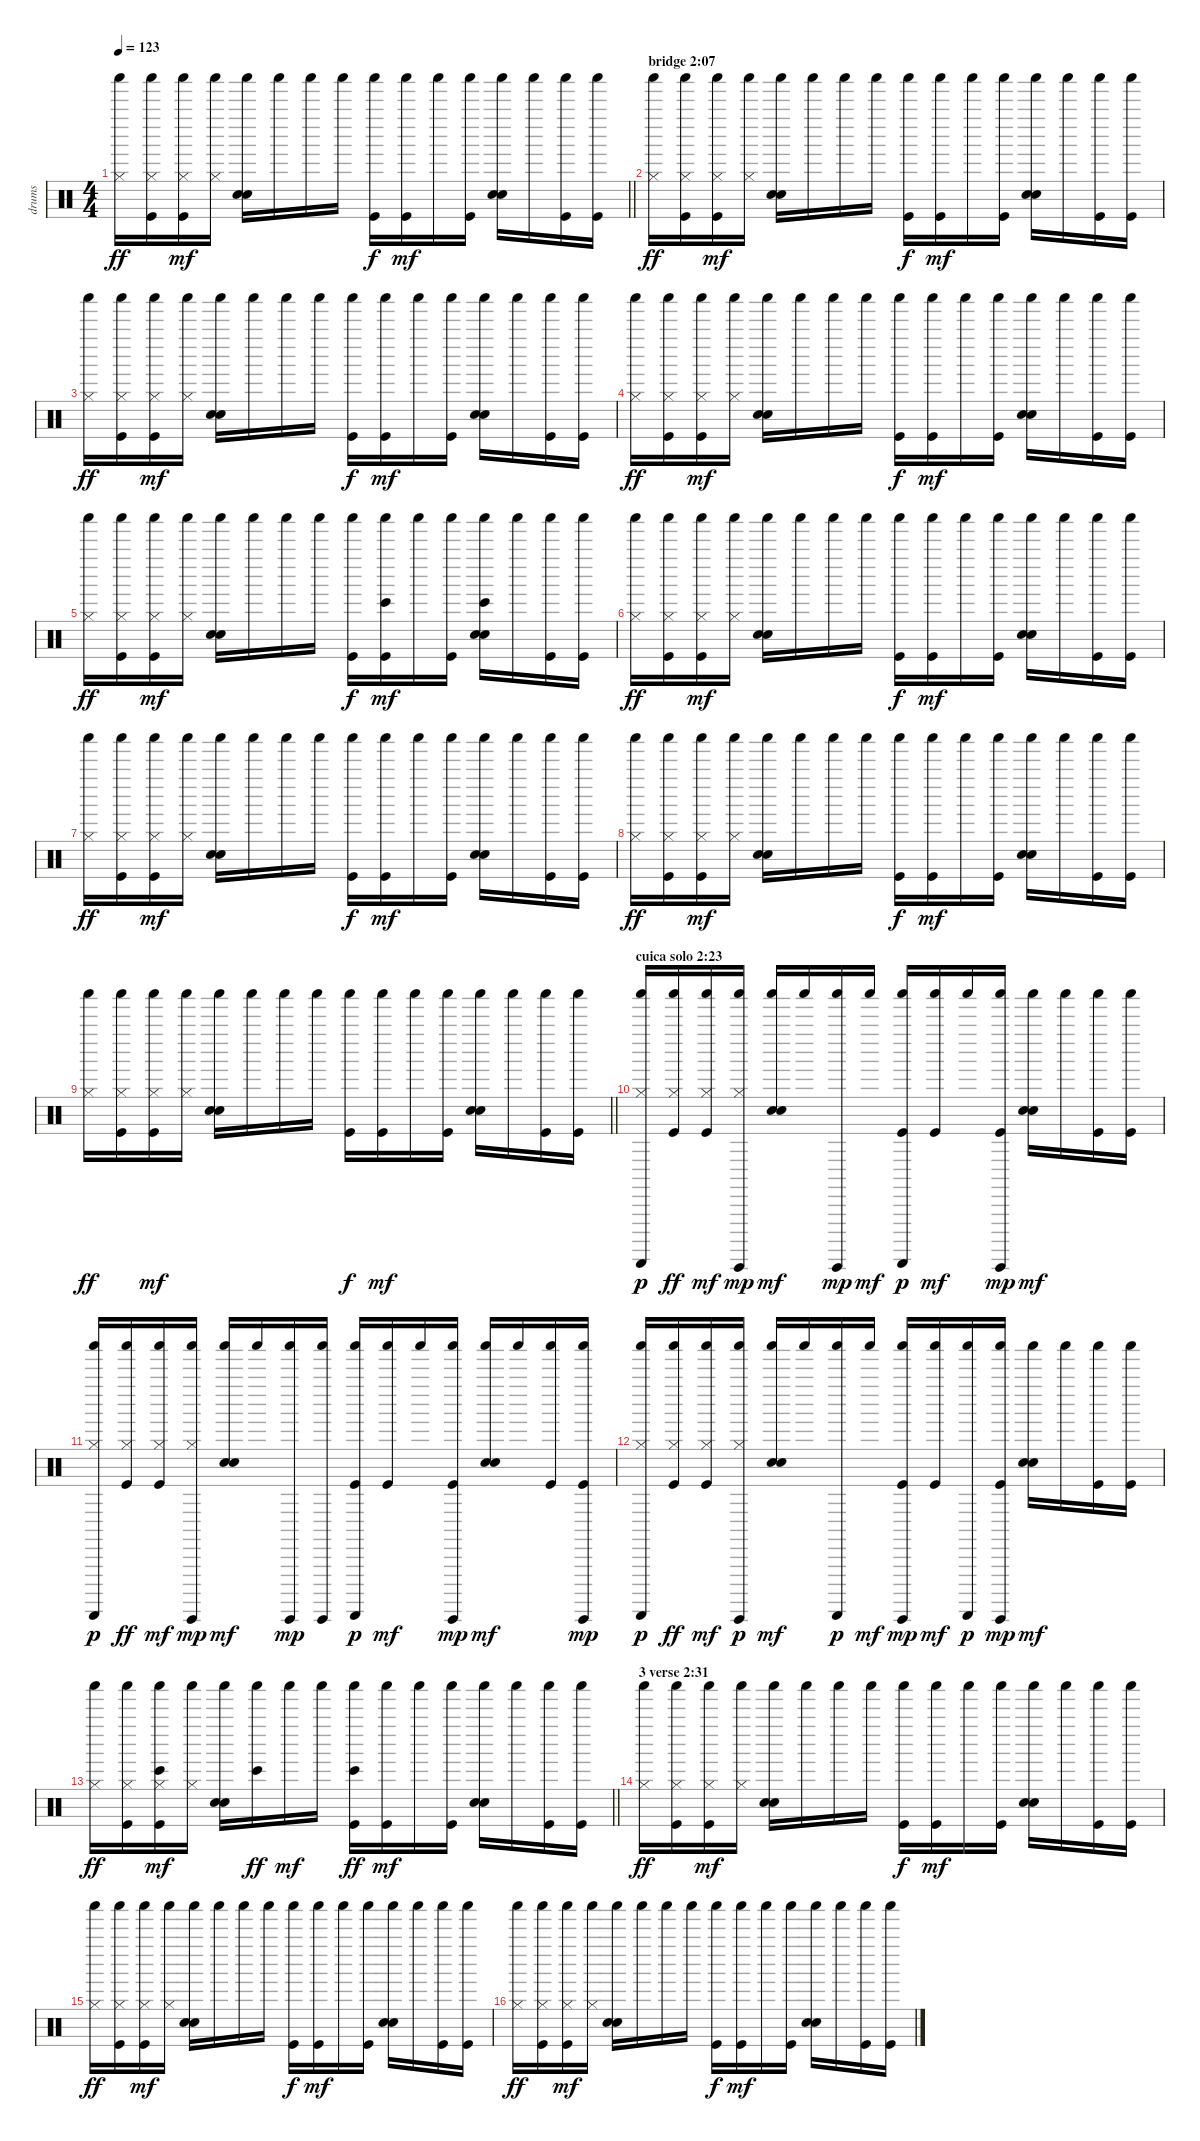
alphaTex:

\track ("drums" "drums") {instrument percussion}
\staff {score}
\articulation defaults
\ts (4 4)
\tempo 123
\clef neutral
\barLineRight lightlight
\ks c
("Shaker (hit)" "Hi-Hat (closed)").16{dy ff} ("Shaker (hit)" "Hi-Hat (closed)" "Kick (hit)").16 ("Shaker (hit)" "Hi-Hat (closed)" "Kick (hit)").16{dy mf} ("Shaker (hit)" "Hi-Hat (closed)").16 ("Shaker (hit)" "Electric Snare (hit)" "Hand Clap (hit)").16 "Shaker (hit)".16 "Shaker (hit)".16 "Shaker (hit)".16 ("Shaker (hit)" "Kick (hit)").16{dy f} ("Shaker (hit)" "Kick (hit)").16{dy mf} "Shaker (hit)".16 ("Shaker (hit)" "Kick (hit)").16 ("Shaker (hit)" "Electric Snare (hit)" "Hand Clap (hit)").16 "Shaker (hit)".16 ("Shaker (hit)" "Kick (hit)").16 ("Shaker (hit)" "Kick (hit)").16 |
\section ("" "bridge 2:07")
("Shaker (hit)" "Hi-Hat (closed)").16{dy ff} ("Shaker (hit)" "Hi-Hat (closed)" "Kick (hit)").16 ("Shaker (hit)" "Hi-Hat (closed)" "Kick (hit)").16{dy mf} ("Shaker (hit)" "Hi-Hat (closed)").16 ("Shaker (hit)" "Electric Snare (hit)" "Hand Clap (hit)").16 "Shaker (hit)".16 "Shaker (hit)".16 "Shaker (hit)".16 ("Shaker (hit)" "Kick (hit)").16{dy f} ("Shaker (hit)" "Kick (hit)").16{dy mf} "Shaker (hit)".16 ("Shaker (hit)" "Kick (hit)").16 ("Shaker (hit)" "Electric Snare (hit)" "Hand Clap (hit)").16 "Shaker (hit)".16 ("Shaker (hit)" "Kick (hit)").16 ("Shaker (hit)" "Kick (hit)").16 |
("Shaker (hit)" "Hi-Hat (closed)").16{dy ff} ("Shaker (hit)" "Hi-Hat (closed)" "Kick (hit)").16 ("Shaker (hit)" "Hi-Hat (closed)" "Kick (hit)").16{dy mf} ("Shaker (hit)" "Hi-Hat (closed)").16 ("Shaker (hit)" "Electric Snare (hit)" "Hand Clap (hit)").16 "Shaker (hit)".16 "Shaker (hit)".16 "Shaker (hit)".16 ("Shaker (hit)" "Kick (hit)").16{dy f} ("Shaker (hit)" "Kick (hit)").16{dy mf} "Shaker (hit)".16 ("Shaker (hit)" "Kick (hit)").16 ("Shaker (hit)" "Electric Snare (hit)" "Hand Clap (hit)").16 "Shaker (hit)".16 ("Shaker (hit)" "Kick (hit)").16 ("Shaker (hit)" "Kick (hit)").16 |
("Shaker (hit)" "Hi-Hat (closed)").16{dy ff} ("Shaker (hit)" "Hi-Hat (closed)" "Kick (hit)").16 ("Shaker (hit)" "Hi-Hat (closed)" "Kick (hit)").16{dy mf} ("Shaker (hit)" "Hi-Hat (closed)").16 ("Shaker (hit)" "Electric Snare (hit)" "Hand Clap (hit)").16 "Shaker (hit)".16 "Shaker (hit)".16 "Shaker (hit)".16 ("Shaker (hit)" "Kick (hit)").16{dy f} ("Shaker (hit)" "Kick (hit)").16{dy mf} "Shaker (hit)".16 ("Shaker (hit)" "Kick (hit)").16 ("Shaker (hit)" "Electric Snare (hit)" "Hand Clap (hit)").16 "Shaker (hit)".16 ("Shaker (hit)" "Kick (hit)").16 ("Shaker (hit)" "Kick (hit)").16 |
("Shaker (hit)" "Hi-Hat (closed)").16{dy ff} ("Shaker (hit)" "Hi-Hat (closed)" "Kick (hit)").16 ("Shaker (hit)" "Hi-Hat (closed)" "Kick (hit)").16{dy mf} ("Shaker (hit)" "Hi-Hat (closed)").16 ("Shaker (hit)" "Electric Snare (hit)" "Hand Clap (hit)").16 "Shaker (hit)".16 "Shaker (hit)".16 "Shaker (hit)".16 ("Shaker (hit)" "Kick (hit)").16{dy f} ("Shaker (hit)" "Bongo High (hit)" "Kick (hit)").16{dy mf} "Shaker (hit)".16 ("Shaker (hit)" "Kick (hit)").16 ("Shaker (hit)" "Electric Snare (hit)" "Hand Clap (hit)" "Bongo High (hit)").16 "Shaker (hit)".16 ("Shaker (hit)" "Kick (hit)").16 ("Shaker (hit)" "Kick (hit)").16 |
("Shaker (hit)" "Hi-Hat (closed)").16{dy ff} ("Shaker (hit)" "Hi-Hat (closed)" "Kick (hit)").16 ("Shaker (hit)" "Hi-Hat (closed)" "Kick (hit)").16{dy mf} ("Shaker (hit)" "Hi-Hat (closed)").16 ("Shaker (hit)" "Electric Snare (hit)" "Hand Clap (hit)").16 "Shaker (hit)".16 "Shaker (hit)".16 "Shaker (hit)".16 ("Shaker (hit)" "Kick (hit)").16{dy f} ("Shaker (hit)" "Kick (hit)").16{dy mf} "Shaker (hit)".16 ("Shaker (hit)" "Kick (hit)").16 ("Shaker (hit)" "Electric Snare (hit)" "Hand Clap (hit)").16 "Shaker (hit)".16 ("Shaker (hit)" "Kick (hit)").16 ("Shaker (hit)" "Kick (hit)").16 |
("Shaker (hit)" "Hi-Hat (closed)").16{dy ff} ("Shaker (hit)" "Hi-Hat (closed)" "Kick (hit)").16 ("Shaker (hit)" "Hi-Hat (closed)" "Kick (hit)").16{dy mf} ("Shaker (hit)" "Hi-Hat (closed)").16 ("Shaker (hit)" "Electric Snare (hit)" "Hand Clap (hit)").16 "Shaker (hit)".16 "Shaker (hit)".16 "Shaker (hit)".16 ("Shaker (hit)" "Kick (hit)").16{dy f} ("Shaker (hit)" "Kick (hit)").16{dy mf} "Shaker (hit)".16 ("Shaker (hit)" "Kick (hit)").16 ("Shaker (hit)" "Electric Snare (hit)" "Hand Clap (hit)").16 "Shaker (hit)".16 ("Shaker (hit)" "Kick (hit)").16 ("Shaker (hit)" "Kick (hit)").16 |
("Shaker (hit)" "Hi-Hat (closed)").16{dy ff} ("Shaker (hit)" "Hi-Hat (closed)" "Kick (hit)").16 ("Shaker (hit)" "Hi-Hat (closed)" "Kick (hit)").16{dy mf} ("Shaker (hit)" "Hi-Hat (closed)").16 ("Shaker (hit)" "Electric Snare (hit)" "Hand Clap (hit)").16 "Shaker (hit)".16 "Shaker (hit)".16 "Shaker (hit)".16 ("Shaker (hit)" "Kick (hit)").16{dy f} ("Shaker (hit)" "Kick (hit)").16{dy mf} "Shaker (hit)".16 ("Shaker (hit)" "Kick (hit)").16 ("Shaker (hit)" "Electric Snare (hit)" "Hand Clap (hit)").16 "Shaker (hit)".16 ("Shaker (hit)" "Kick (hit)").16 ("Shaker (hit)" "Kick (hit)").16 |
\barLineRight lightlight
("Shaker (hit)" "Hi-Hat (closed)").16{dy ff} ("Shaker (hit)" "Hi-Hat (closed)" "Kick (hit)").16 ("Shaker (hit)" "Hi-Hat (closed)" "Kick (hit)").16{dy mf} ("Shaker (hit)" "Hi-Hat (closed)").16 ("Shaker (hit)" "Electric Snare (hit)" "Hand Clap (hit)").16 "Shaker (hit)".16 "Shaker (hit)".16 "Shaker (hit)".16 ("Shaker (hit)" "Kick (hit)").16{dy f} ("Shaker (hit)" "Kick (hit)").16{dy mf} "Shaker (hit)".16 ("Shaker (hit)" "Kick (hit)").16 ("Shaker (hit)" "Electric Snare (hit)" "Hand Clap (hit)").16 "Shaker (hit)".16 ("Shaker (hit)" "Kick (hit)").16 ("Shaker (hit)" "Kick (hit)").16 |
\section ("" "cuica solo 2:23")
("Shaker (hit)" "Hi-Hat (closed)" "Guiro (scrap-return)").16{dy p} ("Shaker (hit)" "Hi-Hat (closed)" "Kick (hit)").16{dy ff} ("Shaker (hit)" "Hi-Hat (closed)" "Kick (hit)").16{dy mf} ("Shaker (hit)" "Hi-Hat (closed)" "Guiro (hit)").16{dy mp} ("Shaker (hit)" "Electric Snare (hit)" "Hand Clap (hit)").16{dy mf} "Shaker (hit)".16 ("Shaker (hit)" "Guiro (hit)").16{dy mp} "Shaker (hit)".16{dy mf} ("Shaker (hit)" "Guiro (scrap-return)" "Kick (hit)").16{dy p} ("Shaker (hit)" "Kick (hit)").16{dy mf} "Shaker (hit)".16 ("Shaker (hit)" "Guiro (hit)" "Kick (hit)").16{dy mp} ("Shaker (hit)" "Electric Snare (hit)" "Hand Clap (hit)").16{dy mf} "Shaker (hit)".16 ("Shaker (hit)" "Kick (hit)").16 ("Shaker (hit)" "Kick (hit)").16 |
("Shaker (hit)" "Hi-Hat (closed)" "Guiro (scrap-return)").16{dy p} ("Shaker (hit)" "Hi-Hat (closed)" "Kick (hit)").16{dy ff} ("Shaker (hit)" "Hi-Hat (closed)" "Kick (hit)").16{dy mf} ("Shaker (hit)" "Hi-Hat (closed)" "Guiro (hit)").16{dy mp} ("Shaker (hit)" "Electric Snare (hit)" "Hand Clap (hit)").16{dy mf} "Shaker (hit)".16 ("Shaker (hit)" "Guiro (hit)").16{dy mp} ("Shaker (hit)" "Guiro (hit)").16 ("Shaker (hit)" "Guiro (scrap-return)" "Kick (hit)").16{dy p} ("Shaker (hit)" "Kick (hit)").16{dy mf} "Shaker (hit)".16 ("Shaker (hit)" "Guiro (hit)" "Kick (hit)").16{dy mp} ("Shaker (hit)" "Electric Snare (hit)" "Hand Clap (hit)").16{dy mf} "Shaker (hit)".16 ("Shaker (hit)" "Kick (hit)").16 ("Shaker (hit)" "Guiro (hit)" "Kick (hit)").16{dy mp} |
("Shaker (hit)" "Hi-Hat (closed)" "Guiro (scrap-return)").16{dy p} ("Shaker (hit)" "Hi-Hat (closed)" "Kick (hit)").16{dy ff} ("Shaker (hit)" "Hi-Hat (closed)" "Kick (hit)").16{dy mf} ("Shaker (hit)" "Hi-Hat (closed)" "Guiro (hit)").16{dy p} ("Shaker (hit)" "Electric Snare (hit)" "Hand Clap (hit)").16{dy mf} "Shaker (hit)".16 ("Shaker (hit)" "Guiro (scrap-return)").16{dy p} "Shaker (hit)".16{dy mf} ("Shaker (hit)" "Guiro (hit)" "Kick (hit)").16{dy mp} ("Shaker (hit)" "Kick (hit)").16{dy mf} ("Shaker (hit)" "Guiro (scrap-return)").16{dy p} ("Shaker (hit)" "Guiro (hit)" "Kick (hit)").16{dy mp} ("Shaker (hit)" "Electric Snare (hit)" "Hand Clap (hit)").16{dy mf} "Shaker (hit)".16 ("Shaker (hit)" "Kick (hit)").16 ("Shaker (hit)" "Kick (hit)").16 |
\barLineRight lightlight
("Shaker (hit)" "Hi-Hat (closed)").16{dy ff} ("Shaker (hit)" "Hi-Hat (closed)" "Kick (hit)").16 ("Shaker (hit)" "Hi-Hat (closed)" "Bongo High (hit)" "Kick (hit)").16{dy mf} ("Shaker (hit)" "Hi-Hat (closed)").16 ("Shaker (hit)" "Electric Snare (hit)" "Hand Clap (hit)").16 ("Shaker (hit)" "Bongo High (hit)").16{dy ff} "Shaker (hit)".16{dy mf} "Shaker (hit)".16 ("Shaker (hit)" "Bongo High (hit)" "Kick (hit)").16{dy ff} ("Shaker (hit)" "Kick (hit)").16{dy mf} "Shaker (hit)".16 ("Shaker (hit)" "Kick (hit)").16 ("Shaker (hit)" "Electric Snare (hit)" "Hand Clap (hit)").16 "Shaker (hit)".16 ("Shaker (hit)" "Kick (hit)").16 ("Shaker (hit)" "Kick (hit)").16 |
\section ("" "3 verse 2:31")
("Shaker (hit)" "Hi-Hat (closed)").16{dy ff} ("Shaker (hit)" "Hi-Hat (closed)" "Kick (hit)").16 ("Shaker (hit)" "Hi-Hat (closed)" "Kick (hit)").16{dy mf} ("Shaker (hit)" "Hi-Hat (closed)").16 ("Shaker (hit)" "Electric Snare (hit)" "Hand Clap (hit)").16 "Shaker (hit)".16 "Shaker (hit)".16 "Shaker (hit)".16 ("Shaker (hit)" "Kick (hit)").16{dy f} ("Shaker (hit)" "Kick (hit)").16{dy mf} "Shaker (hit)".16 ("Shaker (hit)" "Kick (hit)").16 ("Shaker (hit)" "Electric Snare (hit)" "Hand Clap (hit)").16 "Shaker (hit)".16 ("Shaker (hit)" "Kick (hit)").16 ("Shaker (hit)" "Kick (hit)").16 |
("Shaker (hit)" "Hi-Hat (closed)").16{dy ff} ("Shaker (hit)" "Hi-Hat (closed)" "Kick (hit)").16 ("Shaker (hit)" "Hi-Hat (closed)" "Kick (hit)").16{dy mf} ("Shaker (hit)" "Hi-Hat (closed)").16 ("Shaker (hit)" "Electric Snare (hit)" "Hand Clap (hit)").16 "Shaker (hit)".16 "Shaker (hit)".16 "Shaker (hit)".16 ("Shaker (hit)" "Kick (hit)").16{dy f} ("Shaker (hit)" "Kick (hit)").16{dy mf} "Shaker (hit)".16 ("Shaker (hit)" "Kick (hit)").16 ("Shaker (hit)" "Electric Snare (hit)" "Hand Clap (hit)").16 "Shaker (hit)".16 ("Shaker (hit)" "Kick (hit)").16 ("Shaker (hit)" "Kick (hit)").16 |
("Shaker (hit)" "Hi-Hat (closed)").16{dy ff} ("Shaker (hit)" "Hi-Hat (closed)" "Kick (hit)").16 ("Shaker (hit)" "Hi-Hat (closed)" "Kick (hit)").16{dy mf} ("Shaker (hit)" "Hi-Hat (closed)").16 ("Shaker (hit)" "Electric Snare (hit)" "Hand Clap (hit)").16 "Shaker (hit)".16 "Shaker (hit)".16 "Shaker (hit)".16 ("Shaker (hit)" "Kick (hit)").16{dy f} ("Shaker (hit)" "Kick (hit)").16{dy mf} "Shaker (hit)".16 ("Shaker (hit)" "Kick (hit)").16 ("Shaker (hit)" "Electric Snare (hit)" "Hand Clap (hit)").16 "Shaker (hit)".16 ("Shaker (hit)" "Kick (hit)").16 ("Shaker (hit)" "Kick (hit)").16
